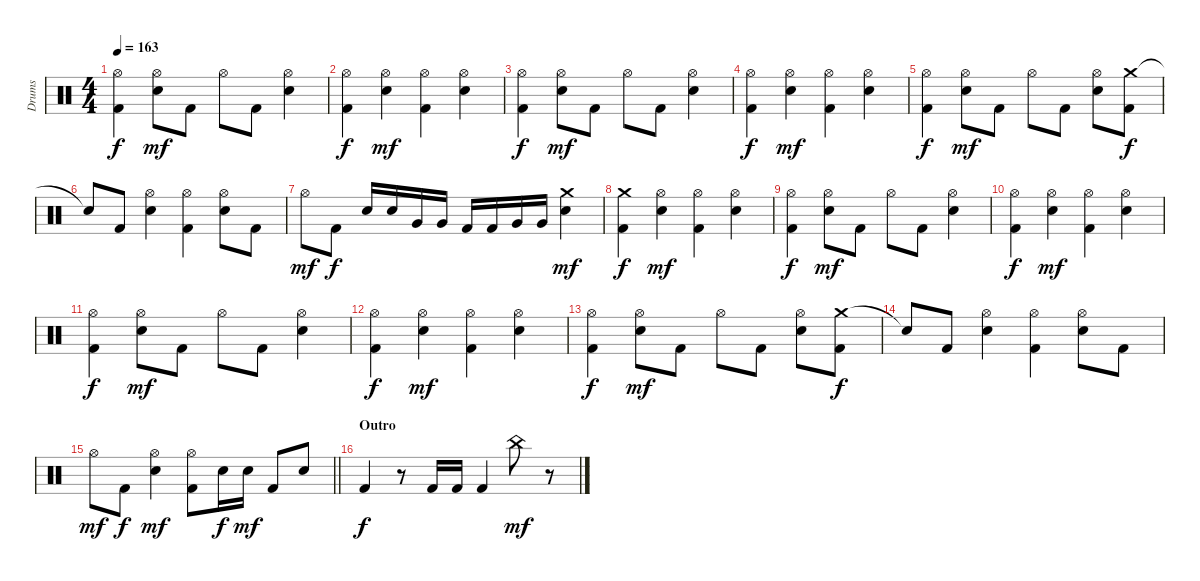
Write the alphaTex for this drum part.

\track ("Drums" "Drums") {instrument percussion}
\staff {score}
\articulation defaults
\ts (4 4)
\tempo 163
\clef neutral
\ks c
("Hi-Hat (open)" "Kick (hit) 2").4{dy f} ("Hi-Hat (open)" "Electric Snare (hit)").8{dy mf} "Kick (hit) 2".8 "Hi-Hat (open)".8 "Kick (hit) 2".8 ("Hi-Hat (open)" "Electric Snare (hit)").4 |
("Hi-Hat (open)" "Kick (hit) 2").4{dy f} ("Hi-Hat (open)" "Electric Snare (hit)").4{dy mf} ("Hi-Hat (open)" "Kick (hit) 2").4 ("Hi-Hat (open)" "Electric Snare (hit)").4 |
("Hi-Hat (open)" "Kick (hit) 2").4{dy f} ("Hi-Hat (open)" "Electric Snare (hit)").8{dy mf} "Kick (hit) 2".8 "Hi-Hat (open)".8 "Kick (hit) 2".8 ("Hi-Hat (open)" "Electric Snare (hit)").4 |
("Hi-Hat (open)" "Kick (hit) 2").4{dy f} ("Hi-Hat (open)" "Electric Snare (hit)").4{dy mf} ("Hi-Hat (open)" "Kick (hit) 2").4 ("Hi-Hat (open)" "Electric Snare (hit)").4 |
("Hi-Hat (open)" "Kick (hit) 2").4{dy f} ("Hi-Hat (open)" "Electric Snare (hit)").8{dy mf} "Kick (hit) 2".8 "Hi-Hat (open)".8 "Kick (hit) 2".8 ("Hi-Hat (open)" "Electric Snare (hit)").8 ("Crash medium (hit)" "Kick (hit) 2").8{dy f} |
"Snare (hit)"{t}.8 "Kick (hit) 2".8 ("Hi-Hat (open)" "Electric Snare (hit)").4 ("Hi-Hat (open)" "Kick (hit) 2").4 ("Hi-Hat (open)" "Electric Snare (hit)").8 "Kick (hit) 2".8 |
"Hi-Hat (open)".8{dy mf} "Kick (hit) 2".8{dy f} "Electric Snare (hit)".16 "Electric Snare (hit)".16 "Very Low Tom (hit)".16 "Very Low Tom (hit)".16 "Kick (hit) 2".16 "Kick (hit) 2".16 "Very Low Tom (hit)".16 "Very Low Tom (hit)".16 ("Crash medium (hit)" "Electric Snare (hit)").4{dy mf} |
("Crash medium (hit)" "Kick (hit) 2").4{dy f} ("Hi-Hat (open)" "Electric Snare (hit)").4{dy mf} ("Hi-Hat (open)" "Kick (hit) 2").4 ("Hi-Hat (open)" "Electric Snare (hit)").4 |
("Hi-Hat (open)" "Kick (hit) 2").4{dy f} ("Hi-Hat (open)" "Electric Snare (hit)").8{dy mf} "Kick (hit) 2".8 "Hi-Hat (open)".8 "Kick (hit) 2".8 ("Hi-Hat (open)" "Electric Snare (hit)").4 |
("Hi-Hat (open)" "Kick (hit) 2").4{dy f} ("Hi-Hat (open)" "Electric Snare (hit)").4{dy mf} ("Hi-Hat (open)" "Kick (hit) 2").4 ("Hi-Hat (open)" "Electric Snare (hit)").4 |
("Hi-Hat (open)" "Kick (hit) 2").4{dy f} ("Hi-Hat (open)" "Electric Snare (hit)").8{dy mf} "Kick (hit) 2".8 "Hi-Hat (open)".8 "Kick (hit) 2".8 ("Hi-Hat (open)" "Electric Snare (hit)").4 |
("Hi-Hat (open)" "Kick (hit) 2").4{dy f} ("Hi-Hat (open)" "Electric Snare (hit)").4{dy mf} ("Hi-Hat (open)" "Kick (hit) 2").4 ("Hi-Hat (open)" "Electric Snare (hit)").4 |
("Hi-Hat (open)" "Kick (hit) 2").4{dy f} ("Hi-Hat (open)" "Electric Snare (hit)").8{dy mf} "Kick (hit) 2".8 "Hi-Hat (open)".8 "Kick (hit) 2".8 ("Hi-Hat (open)" "Electric Snare (hit)").8 ("Crash medium (hit)" "Kick (hit) 2").8{dy f} |
"Snare (hit)"{t}.8 "Kick (hit) 2".8 ("Hi-Hat (open)" "Electric Snare (hit)").4 ("Hi-Hat (open)" "Kick (hit) 2").4 ("Hi-Hat (open)" "Electric Snare (hit)").8 "Kick (hit) 2".8 |
\barLineRight lightlight "Hi-Hat (open)".8{dy mf} "Kick (hit) 2".8{dy f}
("Hi-Hat (open)" "Electric Snare (hit)").4{dy mf} ("Hi-Hat (open)" "Kick (hit) 2").8 "Electric Snare (hit)".16{dy f} "Electric Snare (hit)".16{dy mf} "Kick (hit) 2".8 "Electric Snare (hit)".8 |
\section ("" "Outro")
"Kick (hit) 2".4{dy f} r.8 "Kick (hit) 2".16 "Kick (hit) 2".16 "Kick (hit) 2".4 "China (hit)".8{dy mf} r.8
